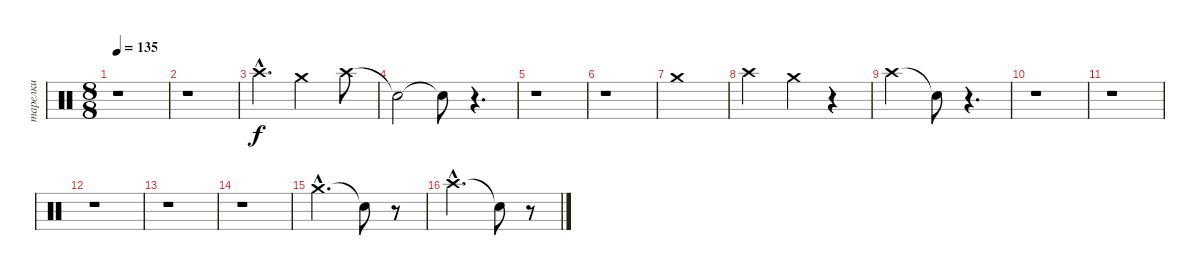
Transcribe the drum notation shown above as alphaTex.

\track ("тарелки" "тарелки") {instrument percussion}
\staff {score}
\articulation defaults
\ts (8 8)
\tempo 135
\clef neutral
\ks c
r.1{dy f} |
r.1 |
"Crash high (hit)"{hac}.4{d} "Crash medium (hit)".2 "Crash high (hit)".8 |
"Snare (hit)"{t}.2 "Snare (hit)"{t}.8 r.4{d} |
r.1 |
r.1 |
"Crash medium (hit)".1 |
"Crash high (hit)".2 "Crash medium (hit)".4 r.4 |
"Crash high (hit)".2 "Snare (hit)"{t}.8 r.4{d} |
r.1 |
r.1 |
r.1 |
r.1 |
r.1 |
"Crash medium (hit)"{hac}.2{d} "Snare (hit)"{t}.8 r.8 |
"Crash high (hit)"{hac}.2{d} "Snare (hit)"{t}.8 r.8
